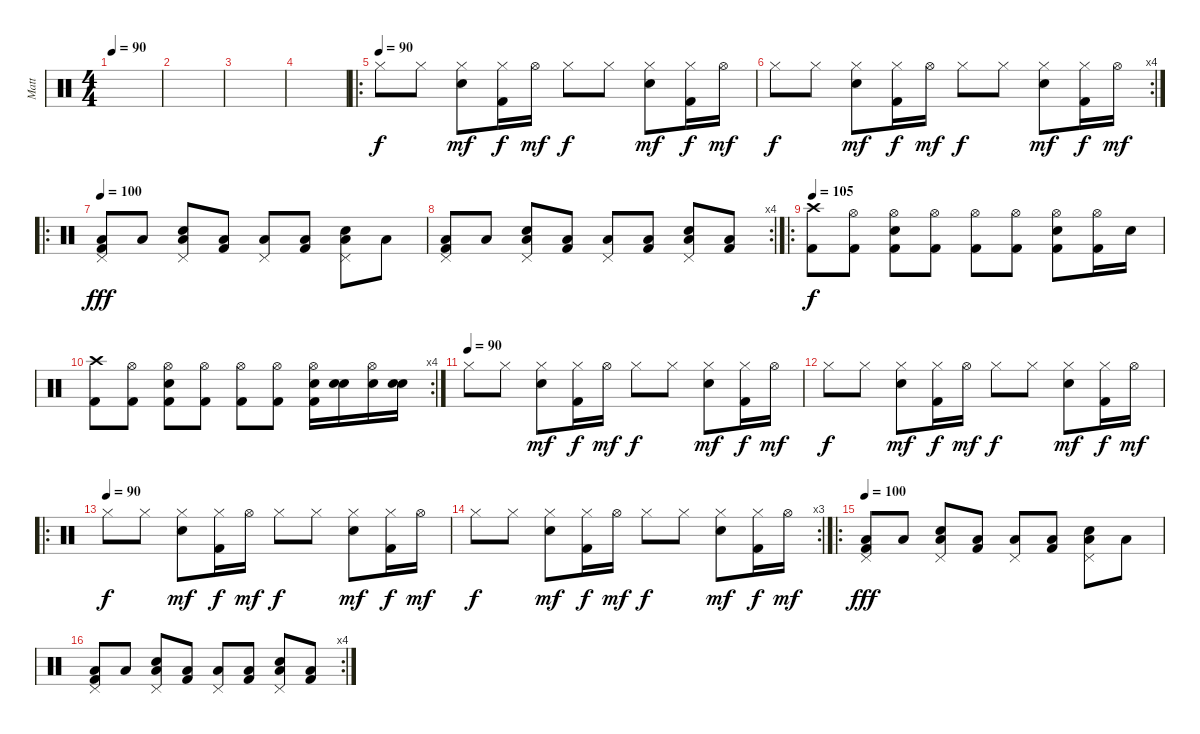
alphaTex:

\track ("Matt" "Matt") {instrument percussion}
\staff {score}
\articulation defaults
\ts (4 4)
\tempo 90
\clef neutral
\ks c
|
|
|
|
\ro
\tempo (90)
"Hi-Hat (closed)".8 "Hi-Hat (closed)".8 ("Hi-Hat (closed)" "Snare (hit) 2").8{dy mf} ("Hi-Hat (closed)" "Kick (hit) 2").16{dy f} "Hi-Hat (open)".16{dy mf} "Hi-Hat (closed)".8{dy f} "Hi-Hat (closed)".8 ("Hi-Hat (closed)" "Snare (hit) 2").8{dy mf} ("Hi-Hat (closed)" "Kick (hit) 2").16{dy f} "Hi-Hat (open)".16{dy mf} |
\rc 4 "Hi-Hat (closed)".8{dy f} "Hi-Hat (closed)".8
("Hi-Hat (closed)" "Snare (hit) 2").8{dy mf} ("Hi-Hat (closed)" "Kick (hit) 2").16{dy f} "Hi-Hat (open)".16{dy mf} "Hi-Hat (closed)".8{dy f} "Hi-Hat (closed)".8 ("Hi-Hat (closed)" "Snare (hit) 2").8{dy mf} ("Hi-Hat (closed)" "Kick (hit) 2").16{dy f} "Hi-Hat (open)".16{dy mf} |
\ro
\tempo 100
("Pedal Hi-Hat (hit)" "Low Floor Tom (hit)" "Kick (hit) 2").8{dy fff} "Low Floor Tom (hit)".8 ("Pedal Hi-Hat (hit)" "Low Floor Tom (hit)" "Snare (hit) 2").8 ("Low Floor Tom (hit)" "Kick (hit) 2").8 ("Pedal Hi-Hat (hit)" "Low Floor Tom (hit)").8 ("Low Floor Tom (hit)" "Kick (hit) 2").8 ("Pedal Hi-Hat (hit)" "Low Floor Tom (hit)" "Snare (hit) 2").8 "Low Floor Tom (hit)".8 |
\rc 4
("Pedal Hi-Hat (hit)" "Low Floor Tom (hit)" "Kick (hit) 2").8 "Low Floor Tom (hit)".8 ("Pedal Hi-Hat (hit)" "Low Floor Tom (hit)" "Snare (hit) 2").8 ("Low Floor Tom (hit)" "Kick (hit) 2").8 ("Pedal Hi-Hat (hit)" "Low Floor Tom (hit)").8 ("Low Floor Tom (hit)" "Kick (hit) 2").8 ("Pedal Hi-Hat (hit)" "Low Floor Tom (hit)" "Snare (hit) 2").8 ("Low Floor Tom (hit)" "Kick (hit) 2").8 |
\ro
\tempo 105
("Crash high (hit)" "Kick (hit) 2").8{dy f} ("Hi-Hat (open)" "Kick (hit) 2").8 ("Hi-Hat (open)" "Kick (hit) 2" "Snare (hit) 2").8 ("Hi-Hat (open)" "Kick (hit) 2").8 ("Hi-Hat (open)" "Kick (hit) 2").8 ("Hi-Hat (open)" "Kick (hit) 2").8 ("Hi-Hat (open)" "Kick (hit) 2" "Snare (hit) 2").8 ("Hi-Hat (open)" "Kick (hit) 2").16 "Snare (hit) 2".16 |
\rc 4
("Crash high (hit)" "Kick (hit) 2").8 ("Hi-Hat (open)" "Kick (hit) 2").8 ("Hi-Hat (open)" "Kick (hit) 2" "Snare (hit) 2").8 ("Hi-Hat (open)" "Kick (hit) 2").8 ("Hi-Hat (open)" "Kick (hit) 2").8 ("Hi-Hat (open)" "Kick (hit) 2").8 ("Hi-Hat (open)" "Kick (hit) 2" "Snare (hit) 2").16 ("Snare (hit)" "Snare (hit) 2").16 ("Hi-Hat (open)" "Snare (hit) 2").16 ("Snare (hit)" "Snare (hit) 2").16 |
\tempo (90)
"Hi-Hat (closed)".8 "Hi-Hat (closed)".8 ("Hi-Hat (closed)" "Snare (hit) 2").8{dy mf} ("Hi-Hat (closed)" "Kick (hit) 2").16{dy f} "Hi-Hat (open)".16{dy mf} "Hi-Hat (closed)".8{dy f} "Hi-Hat (closed)".8 ("Hi-Hat (closed)" "Snare (hit) 2").8{dy mf} ("Hi-Hat (closed)" "Kick (hit) 2").16{dy f} "Hi-Hat (open)".16{dy mf} |
"Hi-Hat (closed)".8{dy f} "Hi-Hat (closed)".8 ("Hi-Hat (closed)" "Snare (hit) 2").8{dy mf} ("Hi-Hat (closed)" "Kick (hit) 2").16{dy f} "Hi-Hat (open)".16{dy mf} "Hi-Hat (closed)".8{dy f} "Hi-Hat (closed)".8 ("Hi-Hat (closed)" "Snare (hit) 2").8{dy mf} ("Hi-Hat (closed)" "Kick (hit) 2").16{dy f} "Hi-Hat (open)".16{dy mf} |
\ro
\tempo (90)
"Hi-Hat (closed)".8{dy f} "Hi-Hat (closed)".8 ("Hi-Hat (closed)" "Snare (hit) 2").8{dy mf} ("Hi-Hat (closed)" "Kick (hit) 2").16{dy f} "Hi-Hat (open)".16{dy mf} "Hi-Hat (closed)".8{dy f} "Hi-Hat (closed)".8 ("Hi-Hat (closed)" "Snare (hit) 2").8{dy mf} ("Hi-Hat (closed)" "Kick (hit) 2").16{dy f} "Hi-Hat (open)".16{dy mf} |
\rc 3 "Hi-Hat (closed)".8{dy f} "Hi-Hat (closed)".8
("Hi-Hat (closed)" "Snare (hit) 2").8{dy mf} ("Hi-Hat (closed)" "Kick (hit) 2").16{dy f} "Hi-Hat (open)".16{dy mf} "Hi-Hat (closed)".8{dy f} "Hi-Hat (closed)".8 ("Hi-Hat (closed)" "Snare (hit) 2").8{dy mf} ("Hi-Hat (closed)" "Kick (hit) 2").16{dy f} "Hi-Hat (open)".16{dy mf} |
\ro
\tempo 100
("Pedal Hi-Hat (hit)" "Low Floor Tom (hit)" "Kick (hit) 2").8{dy fff} "Low Floor Tom (hit)".8 ("Pedal Hi-Hat (hit)" "Low Floor Tom (hit)" "Snare (hit) 2").8 ("Low Floor Tom (hit)" "Kick (hit) 2").8 ("Pedal Hi-Hat (hit)" "Low Floor Tom (hit)").8 ("Low Floor Tom (hit)" "Kick (hit) 2").8 ("Pedal Hi-Hat (hit)" "Low Floor Tom (hit)" "Snare (hit) 2").8 "Low Floor Tom (hit)".8 |
\rc 4
("Pedal Hi-Hat (hit)" "Low Floor Tom (hit)" "Kick (hit) 2").8 "Low Floor Tom (hit)".8 ("Pedal Hi-Hat (hit)" "Low Floor Tom (hit)" "Snare (hit) 2").8 ("Low Floor Tom (hit)" "Kick (hit) 2").8 ("Pedal Hi-Hat (hit)" "Low Floor Tom (hit)").8 ("Low Floor Tom (hit)" "Kick (hit) 2").8 ("Pedal Hi-Hat (hit)" "Low Floor Tom (hit)" "Snare (hit) 2").8 ("Low Floor Tom (hit)" "Kick (hit) 2").8
